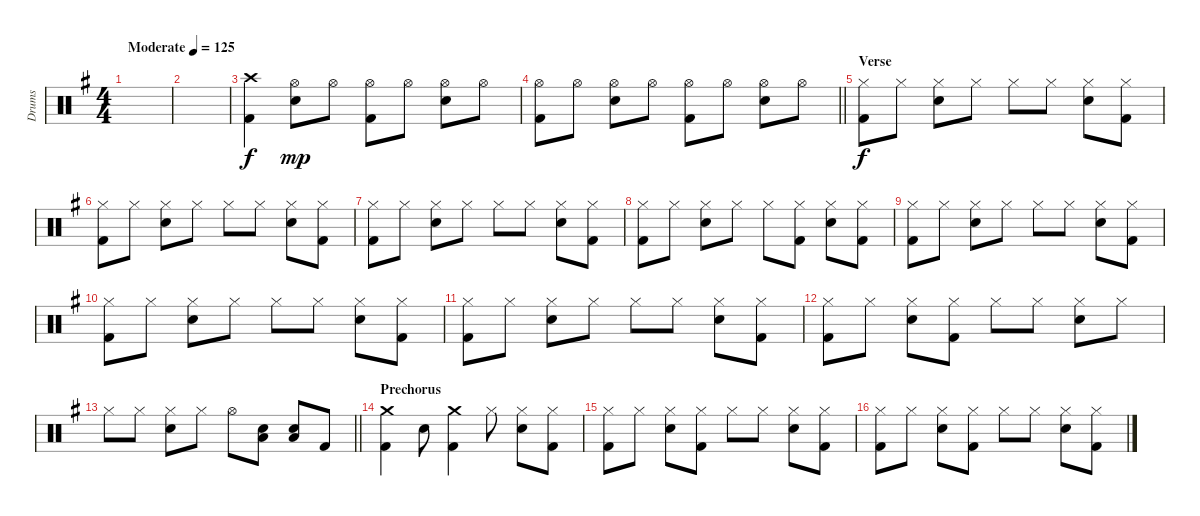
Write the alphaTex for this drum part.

\track ("Drums" "Drums") {instrument percussion}
\staff {score}
\articulation defaults
\ts (4 4)
\tempo (125 "Moderate")
\clef neutral
\ks eminor
|
|
("Crash high (hit)" "Kick (hit) 2").4 ("Hi-Hat (open)" "Electric Snare (hit)").8{dy mp} "Hi-Hat (open)".8 ("Hi-Hat (open)" "Kick (hit) 2").8 "Hi-Hat (open)".8 ("Hi-Hat (open)" "Electric Snare (hit)").8 "Hi-Hat (open)".8 |
\barLineRight lightlight
("Hi-Hat (open)" "Kick (hit) 2").8 "Hi-Hat (open)".8 ("Hi-Hat (open)" "Electric Snare (hit)").8 "Hi-Hat (open)".8 ("Hi-Hat (open)" "Kick (hit) 2").8 "Hi-Hat (open)".8 ("Hi-Hat (open)" "Electric Snare (hit)").8 "Hi-Hat (open)".8 |
\section ("" "Verse")
("Hi-Hat (closed)" "Kick (hit) 2").8{dy f} "Hi-Hat (closed)".8 ("Hi-Hat (closed)" "Electric Snare (hit)").8 "Hi-Hat (closed)".8 "Hi-Hat (closed)".8 "Hi-Hat (closed)".8 ("Hi-Hat (closed)" "Electric Snare (hit)").8 ("Hi-Hat (closed)" "Kick (hit) 2").8 |
("Hi-Hat (closed)" "Kick (hit) 2").8 "Hi-Hat (closed)".8 ("Hi-Hat (closed)" "Electric Snare (hit)").8 "Hi-Hat (closed)".8 "Hi-Hat (closed)".8 "Hi-Hat (closed)".8 ("Hi-Hat (closed)" "Electric Snare (hit)").8 ("Hi-Hat (closed)" "Kick (hit) 2").8 |
("Hi-Hat (closed)" "Kick (hit) 2").8 "Hi-Hat (closed)".8 ("Hi-Hat (closed)" "Electric Snare (hit)").8 "Hi-Hat (closed)".8 "Hi-Hat (closed)".8 "Hi-Hat (closed)".8 ("Hi-Hat (closed)" "Electric Snare (hit)").8 ("Hi-Hat (closed)" "Kick (hit) 2").8 |
("Hi-Hat (closed)" "Kick (hit) 2").8 "Hi-Hat (closed)".8 ("Hi-Hat (closed)" "Electric Snare (hit)").8 "Hi-Hat (closed)".8 "Hi-Hat (closed)".8 ("Hi-Hat (closed)" "Kick (hit) 2").8 ("Hi-Hat (closed)" "Electric Snare (hit)").8 ("Hi-Hat (closed)" "Kick (hit) 2").8 |
("Hi-Hat (closed)" "Kick (hit) 2").8 "Hi-Hat (closed)".8 ("Hi-Hat (closed)" "Electric Snare (hit)").8 "Hi-Hat (closed)".8 "Hi-Hat (closed)".8 "Hi-Hat (closed)".8 ("Hi-Hat (closed)" "Electric Snare (hit)").8 ("Hi-Hat (closed)" "Kick (hit) 2").8 |
("Hi-Hat (closed)" "Kick (hit) 2").8 "Hi-Hat (closed)".8 ("Hi-Hat (closed)" "Electric Snare (hit)").8 "Hi-Hat (closed)".8 "Hi-Hat (closed)".8 "Hi-Hat (closed)".8 ("Hi-Hat (closed)" "Electric Snare (hit)").8 ("Hi-Hat (closed)" "Kick (hit) 2").8 |
("Hi-Hat (closed)" "Kick (hit) 2").8 "Hi-Hat (closed)".8 ("Hi-Hat (closed)" "Electric Snare (hit)").8 "Hi-Hat (closed)".8 "Hi-Hat (closed)".8 "Hi-Hat (closed)".8 ("Hi-Hat (closed)" "Electric Snare (hit)").8 ("Hi-Hat (closed)" "Kick (hit) 2").8 |
("Hi-Hat (closed)" "Kick (hit) 2").8 "Hi-Hat (closed)".8 ("Hi-Hat (closed)" "Electric Snare (hit)").8 ("Hi-Hat (closed)" "Kick (hit) 2").8 "Hi-Hat (closed)".8 "Hi-Hat (closed)".8 ("Hi-Hat (closed)" "Electric Snare (hit)").8 "Hi-Hat (closed)".8 |
\barLineRight lightlight "Hi-Hat (closed)".8 "Hi-Hat (closed)".8
("Hi-Hat (closed)" "Electric Snare (hit)").8 "Hi-Hat (closed)".8 "Hi-Hat (open)".8 ("Electric Snare (hit)" "Low Tom (hit)").8 ("Electric Snare (hit)" "Low Tom (hit)").8 "Kick (hit) 2".8 |
\section ("" "Prechorus")
("Crash medium (hit)" "Kick (hit) 2").4 "Electric Snare (hit)".8 ("Crash medium (hit)" "Kick (hit) 2").4 "Hi-Hat (closed)".8 ("Hi-Hat (closed)" "Electric Snare (hit)").8 ("Hi-Hat (closed)" "Kick (hit) 2").8 |
("Hi-Hat (closed)" "Kick (hit) 2").8 "Hi-Hat (closed)".8 ("Hi-Hat (closed)" "Electric Snare (hit)").8 ("Hi-Hat (closed)" "Kick (hit) 2").8 "Hi-Hat (closed)".8 "Hi-Hat (closed)".8 ("Hi-Hat (closed)" "Electric Snare (hit)").8 ("Hi-Hat (closed)" "Kick (hit) 2").8 |
("Hi-Hat (closed)" "Kick (hit) 2").8 "Hi-Hat (closed)".8 ("Hi-Hat (closed)" "Electric Snare (hit)").8 ("Hi-Hat (closed)" "Kick (hit) 2").8 "Hi-Hat (closed)".8 "Hi-Hat (closed)".8 ("Hi-Hat (closed)" "Electric Snare (hit)").8 ("Hi-Hat (closed)" "Kick (hit) 2").8
